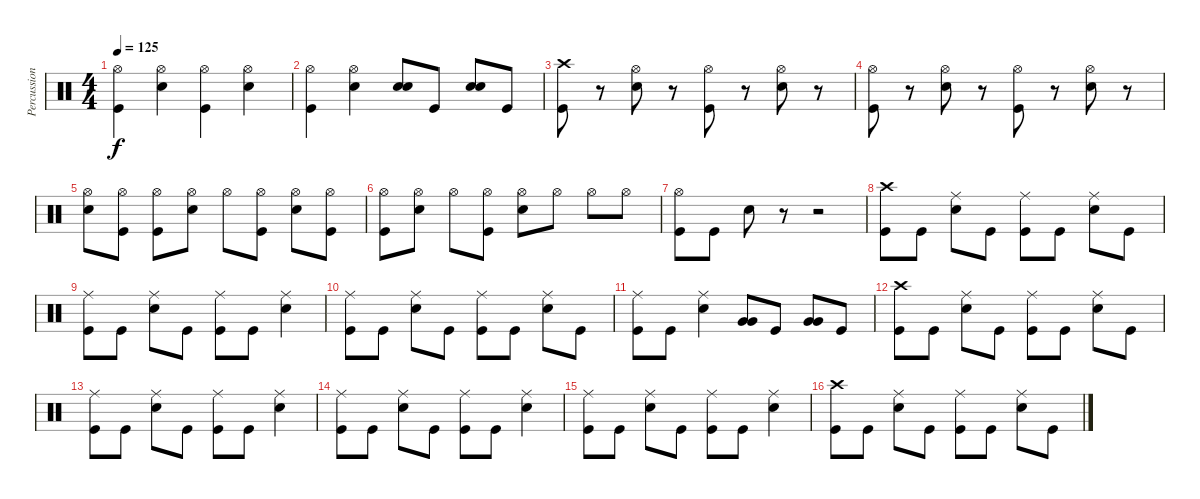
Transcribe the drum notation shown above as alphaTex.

\track ("Percussion" "Percussion") {instrument percussion}
\staff {score}
\articulation defaults
\ts (4 4)
\tempo 125
\clef neutral
\ks c
("Hi-Hat (open)" "Kick (hit)").4{dy f} ("Hi-Hat (open)" "Snare (hit) 2").4 ("Hi-Hat (open)" "Kick (hit)").4 ("Hi-Hat (open)" "Snare (hit) 2").4 |
("Hi-Hat (open)" "Kick (hit)").4 ("Hi-Hat (open)" "Snare (hit) 2").4 ("Snare (hit) 2" "Snare (hit) 2").8 "Kick (hit)".8 ("Snare (hit) 2" "Snare (hit) 2").8 "Kick (hit)".8 |
("Crash high (hit)" "Kick (hit)").8 r.8 ("Hi-Hat (open)" "Snare (hit) 2").8 r.8 ("Hi-Hat (open)" "Kick (hit)").8 r.8 ("Hi-Hat (open)" "Snare (hit) 2").8 r.8 |
("Hi-Hat (open)" "Kick (hit)").8 r.8 ("Hi-Hat (open)" "Snare (hit) 2").8 r.8 ("Hi-Hat (open)" "Kick (hit)").8 r.8 ("Hi-Hat (open)" "Snare (hit) 2").8 r.8 |
("Hi-Hat (open)" "Snare (hit) 2").8 ("Hi-Hat (open)" "Kick (hit)").8 ("Hi-Hat (open)" "Kick (hit)").8 ("Hi-Hat (open)" "Snare (hit) 2").8 "Hi-Hat (open)".8 ("Hi-Hat (open)" "Kick (hit)").8 ("Hi-Hat (open)" "Snare (hit) 2").8 ("Hi-Hat (open)" "Kick (hit)").8 |
("Hi-Hat (open)" "Kick (hit)").8 ("Hi-Hat (open)" "Snare (hit) 2").8 "Hi-Hat (open)".8 ("Hi-Hat (open)" "Kick (hit)").8 ("Hi-Hat (open)" "Snare (hit) 2").8 "Hi-Hat (open)".8 "Hi-Hat (open)".8 "Hi-Hat (open)".8 |
("Hi-Hat (open)" "Kick (hit)").8 "Kick (hit)".8 "Snare (hit) 2".8 r.8 r.2 |
("Crash high (hit)" "Kick (hit)").8 "Kick (hit)".8 ("Ride (middle)" "Snare (hit) 2").8 "Kick (hit)".8 ("Ride (middle)" "Kick (hit)").8 "Kick (hit)".8 ("Ride (middle)" "Snare (hit) 2").8 "Kick (hit)".8 |
("Ride (middle)" "Kick (hit)").8 "Kick (hit)".8 ("Ride (middle)" "Snare (hit) 2").8 "Kick (hit)".8 ("Ride (middle)" "Kick (hit)").8 "Kick (hit)".8 ("Ride (middle)" "Snare (hit) 2").4 |
("Ride (middle)" "Kick (hit)").8 "Kick (hit)".8 ("Ride (middle)" "Snare (hit) 2").8 "Kick (hit)".8 ("Ride (middle)" "Kick (hit)").8 "Kick (hit)".8 ("Ride (middle)" "Snare (hit) 2").8 "Kick (hit)".8 |
("Ride (middle)" "Kick (hit)").8 "Kick (hit)".8 ("Ride (middle)" "Snare (hit) 2").4 ("Very Low Tom (hit)" "Very Low Tom (hit)").8 "Kick (hit)".8 ("Very Low Tom (hit)" "Very Low Tom (hit)").8 "Kick (hit)".8 |
("Crash high (hit)" "Kick (hit)").8 "Kick (hit)".8 ("Ride (middle)" "Snare (hit) 2").8 "Kick (hit)".8 ("Ride (middle)" "Kick (hit)").8 "Kick (hit)".8 ("Ride (middle)" "Snare (hit) 2").8 "Kick (hit)".8 |
("Ride (middle)" "Kick (hit)").8 "Kick (hit)".8 ("Ride (middle)" "Snare (hit) 2").8 "Kick (hit)".8 ("Ride (middle)" "Kick (hit)").8 "Kick (hit)".8 ("Ride (middle)" "Snare (hit) 2").4 |
("Ride (middle)" "Kick (hit)").8 "Kick (hit)".8 ("Ride (middle)" "Snare (hit) 2").8 "Kick (hit)".8 ("Ride (middle)" "Kick (hit)").8 "Kick (hit)".8 ("Ride (middle)" "Snare (hit) 2").4 |
("Ride (middle)" "Kick (hit)").8 "Kick (hit)".8 ("Ride (middle)" "Snare (hit) 2").8 "Kick (hit)".8 ("Ride (middle)" "Kick (hit)").8 "Kick (hit)".8 ("Ride (middle)" "Snare (hit) 2").4 |
("Crash high (hit)" "Kick (hit)").8 "Kick (hit)".8 ("Ride (middle)" "Snare (hit) 2").8 "Kick (hit)".8 ("Ride (middle)" "Kick (hit)").8 "Kick (hit)".8 ("Ride (middle)" "Snare (hit) 2").8 "Kick (hit)".8
